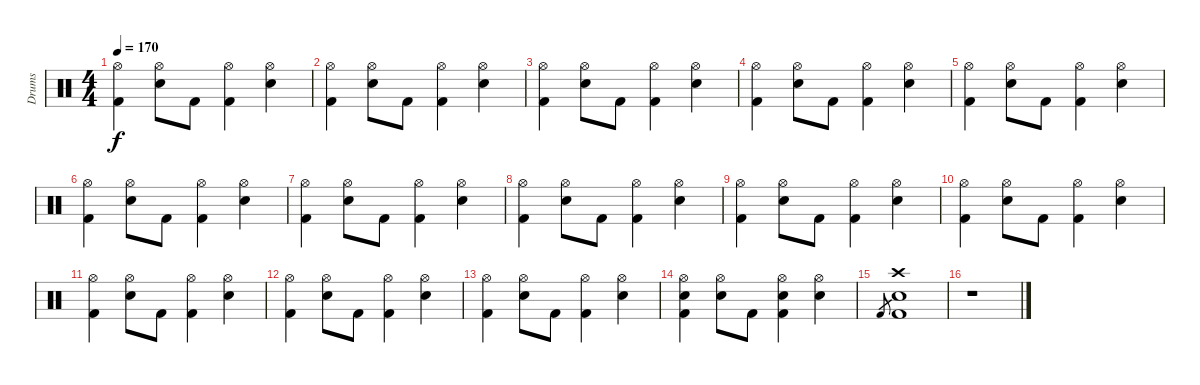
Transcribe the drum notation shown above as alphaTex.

\track ("Drums" "Drums") {instrument percussion}
\staff {score}
\articulation defaults
\ts (4 4)
\tempo 170
\clef neutral
\ks c
("Hi-Hat (open)" "Kick (hit) 2").4{dy f} ("Hi-Hat (open)" "Electric Snare (hit)").8 "Kick (hit) 2".8 ("Hi-Hat (open)" "Kick (hit) 2").4 ("Hi-Hat (open)" "Electric Snare (hit)").4 |
("Hi-Hat (open)" "Kick (hit) 2").4 ("Hi-Hat (open)" "Electric Snare (hit)").8 "Kick (hit) 2".8 ("Hi-Hat (open)" "Kick (hit) 2").4 ("Hi-Hat (open)" "Electric Snare (hit)").4 |
("Hi-Hat (open)" "Kick (hit) 2").4 ("Hi-Hat (open)" "Electric Snare (hit)").8 "Kick (hit) 2".8 ("Hi-Hat (open)" "Kick (hit) 2").4 ("Hi-Hat (open)" "Electric Snare (hit)").4 |
("Hi-Hat (open)" "Kick (hit) 2").4 ("Hi-Hat (open)" "Electric Snare (hit)").8 "Kick (hit) 2".8 ("Hi-Hat (open)" "Kick (hit) 2").4 ("Hi-Hat (open)" "Electric Snare (hit)").4 |
("Hi-Hat (open)" "Kick (hit) 2").4 ("Hi-Hat (open)" "Electric Snare (hit)").8 "Kick (hit) 2".8 ("Hi-Hat (open)" "Kick (hit) 2").4 ("Hi-Hat (open)" "Electric Snare (hit)").4 |
("Hi-Hat (open)" "Kick (hit) 2").4 ("Hi-Hat (open)" "Electric Snare (hit)").8 "Kick (hit) 2".8 ("Hi-Hat (open)" "Kick (hit) 2").4 ("Hi-Hat (open)" "Electric Snare (hit)").4 |
("Hi-Hat (open)" "Kick (hit) 2").4 ("Hi-Hat (open)" "Electric Snare (hit)").8 "Kick (hit) 2".8 ("Hi-Hat (open)" "Kick (hit) 2").4 ("Hi-Hat (open)" "Electric Snare (hit)").4 |
("Hi-Hat (open)" "Kick (hit) 2").4 ("Hi-Hat (open)" "Electric Snare (hit)").8 "Kick (hit) 2".8 ("Hi-Hat (open)" "Kick (hit) 2").4 ("Hi-Hat (open)" "Electric Snare (hit)").4 |
("Hi-Hat (open)" "Kick (hit) 2").4 ("Hi-Hat (open)" "Electric Snare (hit)").8 "Kick (hit) 2".8 ("Hi-Hat (open)" "Kick (hit) 2").4 ("Hi-Hat (open)" "Electric Snare (hit)").4 |
("Hi-Hat (open)" "Kick (hit) 2").4 ("Hi-Hat (open)" "Electric Snare (hit)").8 "Kick (hit) 2".8 ("Hi-Hat (open)" "Kick (hit) 2").4 ("Hi-Hat (open)" "Electric Snare (hit)").4 |
("Hi-Hat (open)" "Kick (hit) 2").4 ("Hi-Hat (open)" "Electric Snare (hit)").8 "Kick (hit) 2".8 ("Hi-Hat (open)" "Kick (hit) 2").4 ("Hi-Hat (open)" "Electric Snare (hit)").4 |
("Hi-Hat (open)" "Kick (hit) 2").4 ("Hi-Hat (open)" "Electric Snare (hit)").8 "Kick (hit) 2".8 ("Hi-Hat (open)" "Kick (hit) 2").4 ("Hi-Hat (open)" "Electric Snare (hit)").4 |
("Hi-Hat (open)" "Kick (hit) 2").4 ("Hi-Hat (open)" "Electric Snare (hit)").8 "Kick (hit) 2".8 ("Hi-Hat (open)" "Kick (hit) 2").4 ("Hi-Hat (open)" "Electric Snare (hit)").4 |
("Hi-Hat (open)" "Electric Snare (hit)" "Kick (hit) 2").4 ("Hi-Hat (open)" "Electric Snare (hit)").8 "Kick (hit) 2".8 ("Hi-Hat (open)" "Electric Snare (hit)" "Kick (hit) 2").4 ("Hi-Hat (open)" "Electric Snare (hit)").4 |
"Kick (hit) 2".8{gr} ("Crash high (hit)" "Electric Snare (hit)" "Kick (hit) 2").1 |
r.1
